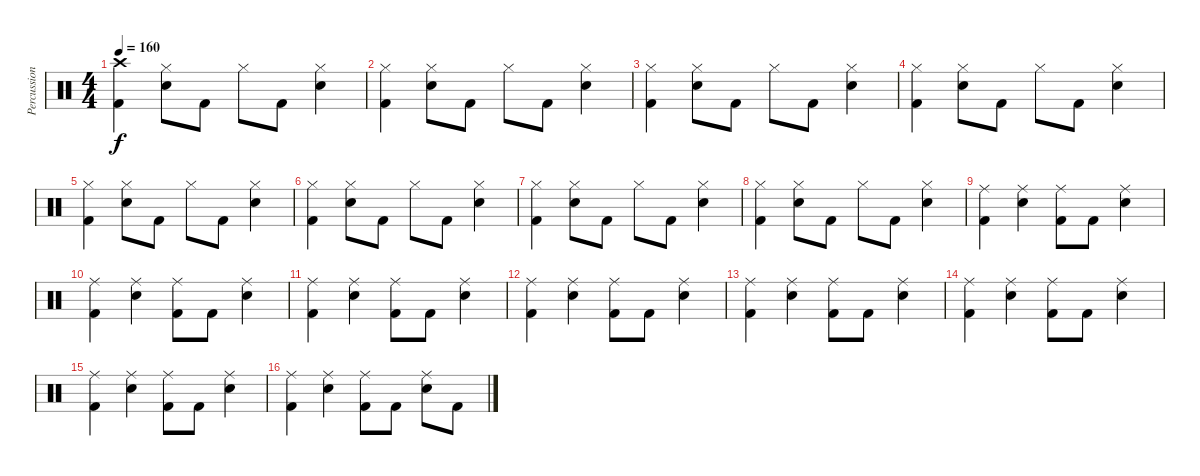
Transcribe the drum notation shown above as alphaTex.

\track ("Percussion" "Percussion") {instrument percussion}
\staff {score}
\articulation defaults
\ts (4 4)
\tempo 160
\clef neutral
\ks c
("Crash high (hit)" "Kick (hit) 2").4{dy f} ("Hi-Hat (closed)" "Electric Snare (hit)").8 "Kick (hit) 2".8 "Hi-Hat (closed)".8 "Kick (hit) 2".8 ("Hi-Hat (closed)" "Electric Snare (hit)").4 |
("Hi-Hat (closed)" "Kick (hit) 2").4 ("Hi-Hat (closed)" "Electric Snare (hit)").8 "Kick (hit) 2".8 "Hi-Hat (closed)".8 "Kick (hit) 2".8 ("Hi-Hat (closed)" "Electric Snare (hit)").4 |
("Hi-Hat (closed)" "Kick (hit) 2").4 ("Hi-Hat (closed)" "Electric Snare (hit)").8 "Kick (hit) 2".8 "Hi-Hat (closed)".8 "Kick (hit) 2".8 ("Hi-Hat (closed)" "Electric Snare (hit)").4 |
("Hi-Hat (closed)" "Kick (hit) 2").4 ("Hi-Hat (closed)" "Electric Snare (hit)").8 "Kick (hit) 2".8 "Hi-Hat (closed)".8 "Kick (hit) 2".8 ("Hi-Hat (closed)" "Electric Snare (hit)").4 |
("Hi-Hat (closed)" "Kick (hit) 2").4 ("Hi-Hat (closed)" "Electric Snare (hit)").8 "Kick (hit) 2".8 "Hi-Hat (closed)".8 "Kick (hit) 2".8 ("Hi-Hat (closed)" "Electric Snare (hit)").4 |
("Hi-Hat (closed)" "Kick (hit) 2").4 ("Hi-Hat (closed)" "Electric Snare (hit)").8 "Kick (hit) 2".8 "Hi-Hat (closed)".8 "Kick (hit) 2".8 ("Hi-Hat (closed)" "Electric Snare (hit)").4 |
("Hi-Hat (closed)" "Kick (hit) 2").4 ("Hi-Hat (closed)" "Electric Snare (hit)").8 "Kick (hit) 2".8 "Hi-Hat (closed)".8 "Kick (hit) 2".8 ("Hi-Hat (closed)" "Electric Snare (hit)").4 |
("Hi-Hat (closed)" "Kick (hit) 2").4 ("Hi-Hat (closed)" "Electric Snare (hit)").8 "Kick (hit) 2".8 "Hi-Hat (closed)".8 "Kick (hit) 2".8 ("Hi-Hat (closed)" "Electric Snare (hit)").4 |
("Ride (middle)" "Kick (hit) 2").4 ("Ride (middle)" "Electric Snare (hit)").4 ("Ride (middle)" "Kick (hit) 2").8 "Kick (hit) 2".8 ("Ride (middle)" "Electric Snare (hit)").4 |
("Ride (middle)" "Kick (hit) 2").4 ("Ride (middle)" "Electric Snare (hit)").4 ("Ride (middle)" "Kick (hit) 2").8 "Kick (hit) 2".8 ("Ride (middle)" "Electric Snare (hit)").4 |
("Ride (middle)" "Kick (hit) 2").4 ("Ride (middle)" "Electric Snare (hit)").4 ("Ride (middle)" "Kick (hit) 2").8 "Kick (hit) 2".8 ("Ride (middle)" "Electric Snare (hit)").4 |
("Ride (middle)" "Kick (hit) 2").4 ("Ride (middle)" "Electric Snare (hit)").4 ("Ride (middle)" "Kick (hit) 2").8 "Kick (hit) 2".8 ("Ride (middle)" "Electric Snare (hit)").4 |
("Ride (middle)" "Kick (hit) 2").4 ("Ride (middle)" "Electric Snare (hit)").4 ("Ride (middle)" "Kick (hit) 2").8 "Kick (hit) 2".8 ("Ride (middle)" "Electric Snare (hit)").4 |
("Ride (middle)" "Kick (hit) 2").4 ("Ride (middle)" "Electric Snare (hit)").4 ("Ride (middle)" "Kick (hit) 2").8 "Kick (hit) 2".8 ("Ride (middle)" "Electric Snare (hit)").4 |
("Ride (middle)" "Kick (hit) 2").4 ("Ride (middle)" "Electric Snare (hit)").4 ("Ride (middle)" "Kick (hit) 2").8 "Kick (hit) 2".8 ("Ride (middle)" "Electric Snare (hit)").4 |
("Ride (middle)" "Kick (hit) 2").4 ("Ride (middle)" "Electric Snare (hit)").4 ("Ride (middle)" "Kick (hit) 2").8 "Kick (hit) 2".8 ("Ride (middle)" "Electric Snare (hit)").8 "Kick (hit) 2".8
